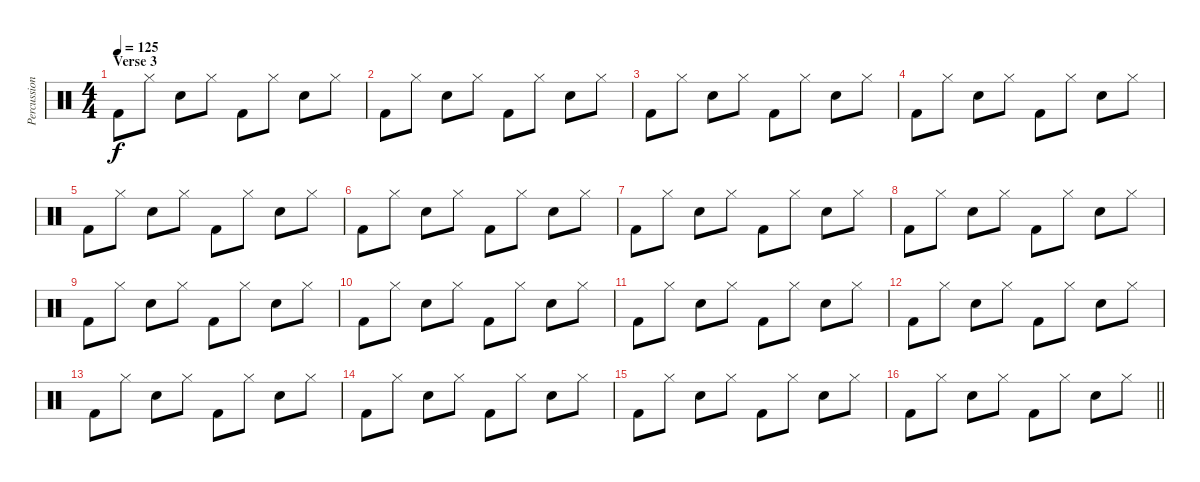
\track ("Percussion" "Percussion") {instrument percussion}
\staff {score}
\articulation defaults
\ts (4 4)
\section ("" "Verse 3")
\tempo 125
\clef neutral
\ks c "Kick (hit) 2".8{dy f} "Hi-Hat (closed)".8 "Electric Snare (hit)".8 "Hi-Hat (closed)".8 "Kick (hit) 2".8 "Hi-Hat (closed)".8 "Electric Snare (hit)".8 "Hi-Hat (closed)".8
|
"Kick (hit) 2".8 "Hi-Hat (closed)".8 "Electric Snare (hit)".8 "Hi-Hat (closed)".8 "Kick (hit) 2".8 "Hi-Hat (closed)".8 "Electric Snare (hit)".8 "Hi-Hat (closed)".8 |
"Kick (hit) 2".8 "Hi-Hat (closed)".8 "Electric Snare (hit)".8 "Hi-Hat (closed)".8 "Kick (hit) 2".8 "Hi-Hat (closed)".8 "Electric Snare (hit)".8 "Hi-Hat (closed)".8 |
"Kick (hit) 2".8 "Hi-Hat (closed)".8 "Electric Snare (hit)".8 "Hi-Hat (closed)".8 "Kick (hit) 2".8 "Hi-Hat (closed)".8 "Electric Snare (hit)".8 "Hi-Hat (closed)".8 |
"Kick (hit) 2".8 "Hi-Hat (closed)".8 "Electric Snare (hit)".8 "Hi-Hat (closed)".8 "Kick (hit) 2".8 "Hi-Hat (closed)".8 "Electric Snare (hit)".8 "Hi-Hat (closed)".8 |
"Kick (hit) 2".8 "Hi-Hat (closed)".8 "Electric Snare (hit)".8 "Hi-Hat (closed)".8 "Kick (hit) 2".8 "Hi-Hat (closed)".8 "Electric Snare (hit)".8 "Hi-Hat (closed)".8 |
"Kick (hit) 2".8 "Hi-Hat (closed)".8 "Electric Snare (hit)".8 "Hi-Hat (closed)".8 "Kick (hit) 2".8 "Hi-Hat (closed)".8 "Electric Snare (hit)".8 "Hi-Hat (closed)".8 |
"Kick (hit) 2".8 "Hi-Hat (closed)".8 "Electric Snare (hit)".8 "Hi-Hat (closed)".8 "Kick (hit) 2".8 "Hi-Hat (closed)".8 "Electric Snare (hit)".8 "Hi-Hat (closed)".8 |
"Kick (hit) 2".8 "Hi-Hat (closed)".8 "Electric Snare (hit)".8 "Hi-Hat (closed)".8 "Kick (hit) 2".8 "Hi-Hat (closed)".8 "Electric Snare (hit)".8 "Hi-Hat (closed)".8 |
"Kick (hit) 2".8 "Hi-Hat (closed)".8 "Electric Snare (hit)".8 "Hi-Hat (closed)".8 "Kick (hit) 2".8 "Hi-Hat (closed)".8 "Electric Snare (hit)".8 "Hi-Hat (closed)".8 |
"Kick (hit) 2".8 "Hi-Hat (closed)".8 "Electric Snare (hit)".8 "Hi-Hat (closed)".8 "Kick (hit) 2".8 "Hi-Hat (closed)".8 "Electric Snare (hit)".8 "Hi-Hat (closed)".8 |
"Kick (hit) 2".8 "Hi-Hat (closed)".8 "Electric Snare (hit)".8 "Hi-Hat (closed)".8 "Kick (hit) 2".8 "Hi-Hat (closed)".8 "Electric Snare (hit)".8 "Hi-Hat (closed)".8 |
"Kick (hit) 2".8 "Hi-Hat (closed)".8 "Electric Snare (hit)".8 "Hi-Hat (closed)".8 "Kick (hit) 2".8 "Hi-Hat (closed)".8 "Electric Snare (hit)".8 "Hi-Hat (closed)".8 |
"Kick (hit) 2".8 "Hi-Hat (closed)".8 "Electric Snare (hit)".8 "Hi-Hat (closed)".8 "Kick (hit) 2".8 "Hi-Hat (closed)".8 "Electric Snare (hit)".8 "Hi-Hat (closed)".8 |
"Kick (hit) 2".8 "Hi-Hat (closed)".8 "Electric Snare (hit)".8 "Hi-Hat (closed)".8 "Kick (hit) 2".8 "Hi-Hat (closed)".8 "Electric Snare (hit)".8 "Hi-Hat (closed)".8 |
\barLineRight lightlight "Kick (hit) 2".8 "Hi-Hat (closed)".8 "Electric Snare (hit)".8 "Hi-Hat (closed)".8 "Kick (hit) 2".8 "Hi-Hat (closed)".8 "Electric Snare (hit)".8 "Hi-Hat (closed)".8
